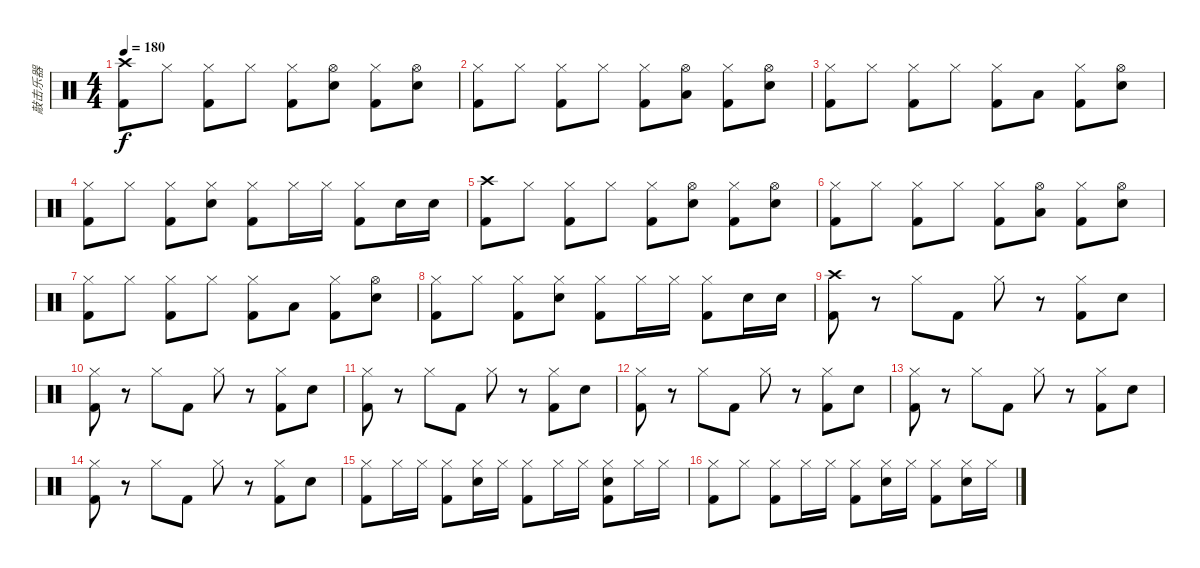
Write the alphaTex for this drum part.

\track ("敲击乐器" "敲击乐器") {instrument percussion}
\staff {score}
\articulation defaults
\ts (4 4)
\tempo 180
\clef neutral
\ks c
("Crash high (hit)" "Kick (hit) 2").8{dy f} "Hi-Hat (closed)".8 ("Hi-Hat (closed)" "Kick (hit) 2").8 "Hi-Hat (closed)".8 ("Hi-Hat (closed)" "Kick (hit) 2").8 ("Hi-Hat (open)" "Snare (hit) 2").8 ("Hi-Hat (closed)" "Kick (hit) 2").8 ("Hi-Hat (open)" "Snare (hit) 2").8 |
("Hi-Hat (closed)" "Kick (hit) 2").8 "Hi-Hat (closed)".8 ("Hi-Hat (closed)" "Kick (hit) 2").8 "Hi-Hat (closed)".8 ("Hi-Hat (closed)" "Kick (hit) 2").8 ("Hi-Hat (open)" "Low Floor Tom (hit)").8 ("Hi-Hat (closed)" "Kick (hit) 2").8 ("Hi-Hat (open)" "Snare (hit) 2").8 |
("Hi-Hat (closed)" "Kick (hit) 2").8 "Hi-Hat (closed)".8 ("Hi-Hat (closed)" "Kick (hit) 2").8 "Hi-Hat (closed)".8 ("Hi-Hat (closed)" "Kick (hit) 2").8 "Low Floor Tom (hit)".8 ("Hi-Hat (closed)" "Kick (hit) 2").8 ("Hi-Hat (open)" "Snare (hit) 2").8 |
("Hi-Hat (closed)" "Kick (hit) 2").8 "Hi-Hat (closed)".8 ("Hi-Hat (closed)" "Kick (hit) 2").8 ("Hi-Hat (closed)" "Snare (hit) 2").8 ("Hi-Hat (closed)" "Kick (hit) 2").8 "Hi-Hat (closed)".16 "Hi-Hat (closed)".16 ("Hi-Hat (closed)" "Kick (hit) 2").8 "Snare (hit) 2".16 "Snare (hit) 2".16 |
("Crash high (hit)" "Kick (hit) 2").8 "Hi-Hat (closed)".8 ("Hi-Hat (closed)" "Kick (hit) 2").8 "Hi-Hat (closed)".8 ("Hi-Hat (closed)" "Kick (hit) 2").8 ("Hi-Hat (open)" "Snare (hit) 2").8 ("Hi-Hat (closed)" "Kick (hit) 2").8 ("Hi-Hat (open)" "Snare (hit) 2").8 |
("Hi-Hat (closed)" "Kick (hit) 2").8 "Hi-Hat (closed)".8 ("Hi-Hat (closed)" "Kick (hit) 2").8 "Hi-Hat (closed)".8 ("Hi-Hat (closed)" "Kick (hit) 2").8 ("Hi-Hat (open)" "Low Floor Tom (hit)").8 ("Hi-Hat (closed)" "Kick (hit) 2").8 ("Hi-Hat (open)" "Snare (hit) 2").8 |
("Hi-Hat (closed)" "Kick (hit) 2").8 "Hi-Hat (closed)".8 ("Hi-Hat (closed)" "Kick (hit) 2").8 "Hi-Hat (closed)".8 ("Hi-Hat (closed)" "Kick (hit) 2").8 "Low Floor Tom (hit)".8 ("Hi-Hat (closed)" "Kick (hit) 2").8 ("Hi-Hat (open)" "Snare (hit) 2").8 |
("Hi-Hat (closed)" "Kick (hit) 2").8 "Hi-Hat (closed)".8 ("Hi-Hat (closed)" "Kick (hit) 2").8 ("Hi-Hat (closed)" "Snare (hit) 2").8 ("Hi-Hat (closed)" "Kick (hit) 2").8 "Hi-Hat (closed)".16 "Hi-Hat (closed)".16 ("Hi-Hat (closed)" "Kick (hit) 2").8 "Snare (hit) 2".16 "Snare (hit) 2".16 |
("Crash high (hit)" "Kick (hit) 2").8 r.8 "Hi-Hat (closed)".8 "Kick (hit) 2".8 "Hi-Hat (closed)".8 r.8 ("Hi-Hat (closed)" "Kick (hit) 2").8 "Snare (hit) 2".8 |
("Hi-Hat (closed)" "Kick (hit) 2").8 r.8 "Hi-Hat (closed)".8 "Kick (hit) 2".8 "Hi-Hat (closed)".8 r.8 ("Hi-Hat (closed)" "Kick (hit) 2").8 "Snare (hit) 2".8 |
("Hi-Hat (closed)" "Kick (hit) 2").8 r.8 "Hi-Hat (closed)".8 "Kick (hit) 2".8 "Hi-Hat (closed)".8 r.8 ("Hi-Hat (closed)" "Kick (hit) 2").8 "Snare (hit) 2".8 |
("Hi-Hat (closed)" "Kick (hit) 2").8 r.8 "Hi-Hat (closed)".8 "Kick (hit) 2".8 "Hi-Hat (closed)".8 r.8 ("Hi-Hat (closed)" "Kick (hit) 2").8 "Snare (hit) 2".8 |
("Hi-Hat (closed)" "Kick (hit) 2").8 r.8 "Hi-Hat (closed)".8 "Kick (hit) 2".8 "Hi-Hat (closed)".8 r.8 ("Hi-Hat (closed)" "Kick (hit) 2").8 "Snare (hit) 2".8 |
("Hi-Hat (closed)" "Kick (hit) 2").8 r.8 "Hi-Hat (closed)".8 "Kick (hit) 2".8 "Hi-Hat (closed)".8 r.8 ("Hi-Hat (closed)" "Kick (hit) 2").8 "Snare (hit) 2".8 |
("Hi-Hat (closed)" "Kick (hit) 2").8 "Hi-Hat (closed)".16 "Hi-Hat (closed)".16 ("Hi-Hat (closed)" "Kick (hit) 2").8 ("Hi-Hat (closed)" "Snare (hit) 2").16 "Hi-Hat (closed)".16 ("Hi-Hat (closed)" "Kick (hit) 2").8 "Hi-Hat (closed)".16 "Hi-Hat (closed)".16 ("Hi-Hat (closed)" "Snare (hit) 2" "Kick (hit) 2").8 "Hi-Hat (closed)".16 "Hi-Hat (closed)".16 |
("Hi-Hat (closed)" "Kick (hit) 2").8 "Hi-Hat (closed)".8 ("Hi-Hat (closed)" "Kick (hit) 2").8 "Hi-Hat (closed)".16 "Hi-Hat (closed)".16 ("Hi-Hat (closed)" "Kick (hit) 2").8 ("Hi-Hat (closed)" "Snare (hit) 2").16 "Hi-Hat (closed)".16 ("Hi-Hat (closed)" "Kick (hit) 2").8 ("Hi-Hat (closed)" "Snare (hit) 2").16 "Hi-Hat (closed)".16
